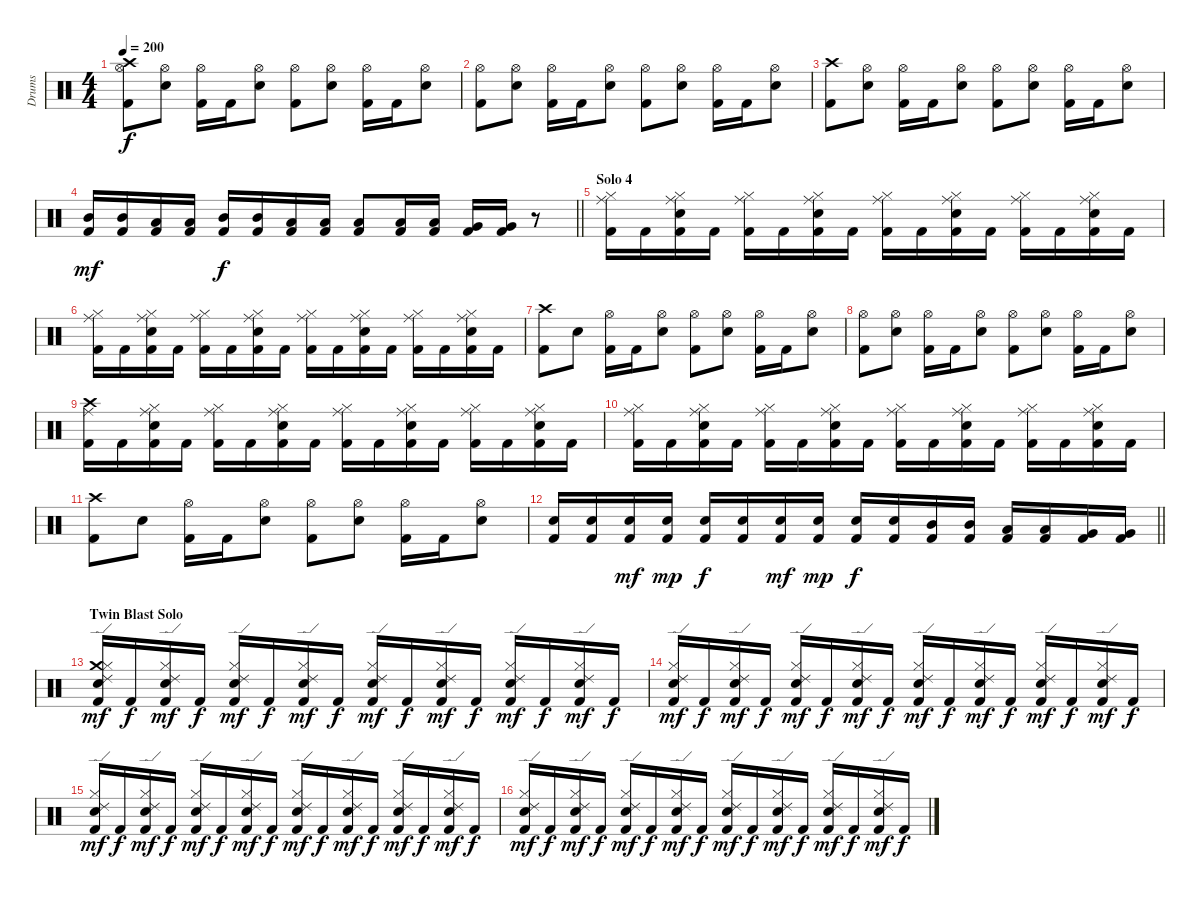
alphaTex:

\track ("Drums" "Drums") {instrument percussion}
\staff {score}
\articulation defaults
\ts (4 4)
\tempo 200
\clef neutral
\ks c
("Crash high (hit)" "Hi-Hat (open)" "Kick (hit) 2").8{dy f} ("Hi-Hat (open)" "Snare (hit) 2").8 ("Hi-Hat (open)" "Kick (hit) 2").16 "Kick (hit) 2".16 ("Hi-Hat (open)" "Snare (hit) 2").8 ("Hi-Hat (open)" "Kick (hit) 2").8 ("Hi-Hat (open)" "Snare (hit) 2").8 ("Hi-Hat (open)" "Kick (hit) 2").16 "Kick (hit) 2".16 ("Hi-Hat (open)" "Snare (hit) 2").8 |
("Hi-Hat (open)" "Kick (hit) 2").8 ("Hi-Hat (open)" "Snare (hit) 2").8 ("Hi-Hat (open)" "Kick (hit) 2").16 "Kick (hit) 2".16 ("Hi-Hat (open)" "Snare (hit) 2").8 ("Hi-Hat (open)" "Kick (hit) 2").8 ("Hi-Hat (open)" "Snare (hit) 2").8 ("Hi-Hat (open)" "Kick (hit) 2").16 "Kick (hit) 2".16 ("Hi-Hat (open)" "Snare (hit) 2").8 |
("Crash high (hit)" "Kick (hit) 2").8 ("Hi-Hat (open)" "Snare (hit) 2").8 ("Hi-Hat (open)" "Kick (hit) 2").16 "Kick (hit) 2".16 ("Hi-Hat (open)" "Snare (hit) 2").8 ("Hi-Hat (open)" "Kick (hit) 2").8 ("Hi-Hat (open)" "Snare (hit) 2").8 ("Hi-Hat (open)" "Kick (hit) 2").16 "Kick (hit) 2".16 ("Hi-Hat (open)" "Snare (hit) 2").8 |
\barLineRight lightlight
("Mid Tom (hit)" "Kick (hit) 2").16{dy mf} ("Mid Tom (hit)" "Kick (hit) 2").16 ("Low Tom (hit)" "Kick (hit) 2").16 ("Low Tom (hit)" "Kick (hit) 2").16 ("Mid Tom (hit)" "Kick (hit) 2").16{dy f} ("Mid Tom (hit)" "Kick (hit) 2").16 ("Low Tom (hit)" "Kick (hit) 2").16 ("Low Tom (hit)" "Kick (hit) 2").16 ("Low Floor Tom (hit)" "Kick (hit) 2").8 ("Low Tom (hit)" "Kick (hit) 2").16 ("Low Tom (hit)" "Kick (hit) 2").16 ("Very Low Tom (hit)" "Kick (hit) 2").16 ("Very Low Tom (hit)" "Kick (hit) 2").16 r.8 |
\section ("" "Solo 4")
("Hi-Hat (closed)" "Ride (middle)" "Kick (hit) 2").16 "Kick (hit) 2".16 ("Hi-Hat (closed)" "Ride (middle)" "Snare (hit) 2" "Kick (hit) 2").16 "Kick (hit) 2".16 ("Hi-Hat (closed)" "Ride (middle)" "Kick (hit) 2").16 "Kick (hit) 2".16 ("Hi-Hat (closed)" "Ride (middle)" "Snare (hit) 2" "Kick (hit) 2").16 "Kick (hit) 2".16 ("Hi-Hat (closed)" "Ride (middle)" "Kick (hit) 2").16 "Kick (hit) 2".16 ("Hi-Hat (closed)" "Ride (middle)" "Snare (hit) 2" "Kick (hit) 2").16 "Kick (hit) 2".16 ("Hi-Hat (closed)" "Ride (middle)" "Kick (hit) 2").16 "Kick (hit) 2".16 ("Hi-Hat (closed)" "Ride (middle)" "Snare (hit) 2" "Kick (hit) 2").16 "Kick (hit) 2".16 |
("Hi-Hat (closed)" "Ride (middle)" "Kick (hit) 2").16 "Kick (hit) 2".16 ("Hi-Hat (closed)" "Ride (middle)" "Snare (hit) 2" "Kick (hit) 2").16 "Kick (hit) 2".16 ("Hi-Hat (closed)" "Ride (middle)" "Kick (hit) 2").16 "Kick (hit) 2".16 ("Hi-Hat (closed)" "Ride (middle)" "Snare (hit) 2" "Kick (hit) 2").16 "Kick (hit) 2".16 ("Hi-Hat (closed)" "Ride (middle)" "Kick (hit) 2").16 "Kick (hit) 2".16 ("Hi-Hat (closed)" "Ride (middle)" "Snare (hit) 2" "Kick (hit) 2").16 "Kick (hit) 2".16 ("Hi-Hat (closed)" "Ride (middle)" "Kick (hit) 2").16 "Kick (hit) 2".16 ("Hi-Hat (closed)" "Ride (middle)" "Snare (hit) 2" "Kick (hit) 2").16 "Kick (hit) 2".16 |
("Crash high (hit)" "Kick (hit) 2").8 "Snare (hit) 2".8 ("Hi-Hat (open)" "Kick (hit) 2").16 "Kick (hit) 2".16 ("Hi-Hat (open)" "Snare (hit) 2").8 ("Hi-Hat (open)" "Kick (hit) 2").8 ("Hi-Hat (open)" "Snare (hit) 2").8 ("Hi-Hat (open)" "Kick (hit) 2").16 "Kick (hit) 2".16 ("Hi-Hat (open)" "Snare (hit) 2").8 |
("Hi-Hat (open)" "Kick (hit) 2").8 ("Hi-Hat (open)" "Snare (hit) 2").8 ("Hi-Hat (open)" "Kick (hit) 2").16 "Kick (hit) 2".16 ("Hi-Hat (open)" "Snare (hit) 2").8 ("Hi-Hat (open)" "Kick (hit) 2").8 ("Hi-Hat (open)" "Snare (hit) 2").8 ("Hi-Hat (open)" "Kick (hit) 2").16 "Kick (hit) 2".16 ("Hi-Hat (open)" "Snare (hit) 2").8 |
("Crash high (hit)" "Ride (middle)" "Kick (hit) 2").16 "Kick (hit) 2".16 ("Hi-Hat (closed)" "Ride (middle)" "Snare (hit) 2" "Kick (hit) 2").16 "Kick (hit) 2".16 ("Hi-Hat (closed)" "Ride (middle)" "Kick (hit) 2").16 "Kick (hit) 2".16 ("Hi-Hat (closed)" "Ride (middle)" "Snare (hit) 2" "Kick (hit) 2").16 "Kick (hit) 2".16 ("Hi-Hat (closed)" "Ride (middle)" "Kick (hit) 2").16 "Kick (hit) 2".16 ("Hi-Hat (closed)" "Ride (middle)" "Snare (hit) 2" "Kick (hit) 2").16 "Kick (hit) 2".16 ("Hi-Hat (closed)" "Ride (middle)" "Kick (hit) 2").16 "Kick (hit) 2".16 ("Hi-Hat (closed)" "Ride (middle)" "Snare (hit) 2" "Kick (hit) 2").16 "Kick (hit) 2".16 |
("Hi-Hat (closed)" "Ride (middle)" "Kick (hit) 2").16 "Kick (hit) 2".16 ("Hi-Hat (closed)" "Ride (middle)" "Snare (hit) 2" "Kick (hit) 2").16 "Kick (hit) 2".16 ("Hi-Hat (closed)" "Ride (middle)" "Kick (hit) 2").16 "Kick (hit) 2".16 ("Hi-Hat (closed)" "Ride (middle)" "Snare (hit) 2" "Kick (hit) 2").16 "Kick (hit) 2".16 ("Hi-Hat (closed)" "Ride (middle)" "Kick (hit) 2").16 "Kick (hit) 2".16 ("Hi-Hat (closed)" "Ride (middle)" "Snare (hit) 2" "Kick (hit) 2").16 "Kick (hit) 2".16 ("Hi-Hat (closed)" "Ride (middle)" "Kick (hit) 2").16 "Kick (hit) 2".16 ("Hi-Hat (closed)" "Ride (middle)" "Snare (hit) 2" "Kick (hit) 2").16 "Kick (hit) 2".16 |
("Crash high (hit)" "Kick (hit) 2").8 "Snare (hit) 2".8 ("Hi-Hat (open)" "Kick (hit) 2").16 "Kick (hit) 2".16 ("Hi-Hat (open)" "Snare (hit) 2").8 ("Hi-Hat (open)" "Kick (hit) 2").8 ("Hi-Hat (open)" "Snare (hit) 2").8 ("Hi-Hat (open)" "Kick (hit) 2").16 "Kick (hit) 2".16 ("Hi-Hat (open)" "Snare (hit) 2").8 |
\barLineRight lightlight
("Snare (hit) 2" "Kick (hit) 2").16 ("Snare (hit) 2" "Kick (hit) 2").16 ("Snare (hit) 2" "Kick (hit) 2").16{dy mf} ("Snare (hit) 2" "Kick (hit) 2").16{dy mp} ("Snare (hit) 2" "Kick (hit) 2").16{dy f} ("Snare (hit) 2" "Kick (hit) 2").16 ("Snare (hit) 2" "Kick (hit) 2").16{dy mf} ("Snare (hit) 2" "Kick (hit) 2").16{dy mp} ("Snare (hit) 2" "Kick (hit) 2").16{dy f} ("Snare (hit) 2" "Kick (hit) 2").16 ("Mid Tom (hit)" "Kick (hit) 2").16 ("Mid Tom (hit)" "Kick (hit) 2").16 ("Low Tom (hit)" "Kick (hit) 2").16 ("Low Tom (hit)" "Kick (hit) 2").16 ("Very Low Tom (hit)" "Kick (hit) 2").16 ("Very Low Tom (hit)" "Kick (hit) 2").16 |
\section ("" "Twin Blast Solo")
("Crash medium (hit)" "Hi-Hat (closed)" "Ride (edge) 2" "Snare (hit) 2" "Kick (hit) 2").16{dy mf} "Kick (hit) 2".16{dy f} ("Hi-Hat (closed)" "Ride (edge) 2" "Snare (hit) 2" "Kick (hit) 2").16{dy mf} "Kick (hit) 2".16{dy f} ("Hi-Hat (closed)" "Ride (edge) 2" "Snare (hit) 2" "Kick (hit) 2").16{dy mf} "Kick (hit) 2".16{dy f} ("Hi-Hat (closed)" "Ride (edge) 2" "Snare (hit) 2" "Kick (hit) 2").16{dy mf} "Kick (hit) 2".16{dy f} ("Hi-Hat (closed)" "Ride (edge) 2" "Snare (hit) 2" "Kick (hit) 2").16{dy mf} "Kick (hit) 2".16{dy f} ("Hi-Hat (closed)" "Ride (edge) 2" "Snare (hit) 2" "Kick (hit) 2").16{dy mf} "Kick (hit) 2".16{dy f} ("Hi-Hat (closed)" "Ride (edge) 2" "Snare (hit) 2" "Kick (hit) 2").16{dy mf} "Kick (hit) 2".16{dy f} ("Hi-Hat (closed)" "Ride (edge) 2" "Snare (hit) 2" "Kick (hit) 2").16{dy mf} "Kick (hit) 2".16{dy f} |
("Hi-Hat (closed)" "Ride (edge) 2" "Snare (hit) 2" "Kick (hit) 2").16{dy mf} "Kick (hit) 2".16{dy f} ("Hi-Hat (closed)" "Ride (edge) 2" "Snare (hit) 2" "Kick (hit) 2").16{dy mf} "Kick (hit) 2".16{dy f} ("Hi-Hat (closed)" "Ride (edge) 2" "Snare (hit) 2" "Kick (hit) 2").16{dy mf} "Kick (hit) 2".16{dy f} ("Hi-Hat (closed)" "Ride (edge) 2" "Snare (hit) 2" "Kick (hit) 2").16{dy mf} "Kick (hit) 2".16{dy f} ("Hi-Hat (closed)" "Ride (edge) 2" "Snare (hit) 2" "Kick (hit) 2").16{dy mf} "Kick (hit) 2".16{dy f} ("Hi-Hat (closed)" "Ride (edge) 2" "Snare (hit) 2" "Kick (hit) 2").16{dy mf} "Kick (hit) 2".16{dy f} ("Hi-Hat (closed)" "Ride (edge) 2" "Snare (hit) 2" "Kick (hit) 2").16{dy mf} "Kick (hit) 2".16{dy f} ("Hi-Hat (closed)" "Ride (edge) 2" "Snare (hit) 2" "Kick (hit) 2").16{dy mf} "Kick (hit) 2".16{dy f} |
("Hi-Hat (closed)" "Ride (edge) 2" "Snare (hit) 2" "Kick (hit) 2").16{dy mf} "Kick (hit) 2".16{dy f} ("Hi-Hat (closed)" "Ride (edge) 2" "Snare (hit) 2" "Kick (hit) 2").16{dy mf} "Kick (hit) 2".16{dy f} ("Hi-Hat (closed)" "Ride (edge) 2" "Snare (hit) 2" "Kick (hit) 2").16{dy mf} "Kick (hit) 2".16{dy f} ("Hi-Hat (closed)" "Ride (edge) 2" "Snare (hit) 2" "Kick (hit) 2").16{dy mf} "Kick (hit) 2".16{dy f} ("Hi-Hat (closed)" "Ride (edge) 2" "Snare (hit) 2" "Kick (hit) 2").16{dy mf} "Kick (hit) 2".16{dy f} ("Hi-Hat (closed)" "Ride (edge) 2" "Snare (hit) 2" "Kick (hit) 2").16{dy mf} "Kick (hit) 2".16{dy f} ("Hi-Hat (closed)" "Ride (edge) 2" "Snare (hit) 2" "Kick (hit) 2").16{dy mf} "Kick (hit) 2".16{dy f} ("Hi-Hat (closed)" "Ride (edge) 2" "Snare (hit) 2" "Kick (hit) 2").16{dy mf} "Kick (hit) 2".16{dy f} |
("Hi-Hat (closed)" "Ride (edge) 2" "Snare (hit) 2" "Kick (hit) 2").16{dy mf} "Kick (hit) 2".16{dy f} ("Hi-Hat (closed)" "Ride (edge) 2" "Snare (hit) 2" "Kick (hit) 2").16{dy mf} "Kick (hit) 2".16{dy f} ("Hi-Hat (closed)" "Ride (edge) 2" "Snare (hit) 2" "Kick (hit) 2").16{dy mf} "Kick (hit) 2".16{dy f} ("Hi-Hat (closed)" "Ride (edge) 2" "Snare (hit) 2" "Kick (hit) 2").16{dy mf} "Kick (hit) 2".16{dy f} ("Hi-Hat (closed)" "Ride (edge) 2" "Snare (hit) 2" "Kick (hit) 2").16{dy mf} "Kick (hit) 2".16{dy f} ("Hi-Hat (closed)" "Ride (edge) 2" "Snare (hit) 2" "Kick (hit) 2").16{dy mf} "Kick (hit) 2".16{dy f} ("Hi-Hat (closed)" "Ride (edge) 2" "Snare (hit) 2" "Kick (hit) 2").16{dy mf} "Kick (hit) 2".16{dy f} ("Hi-Hat (closed)" "Ride (edge) 2" "Snare (hit) 2" "Kick (hit) 2").16{dy mf} "Kick (hit) 2".16{dy f}
